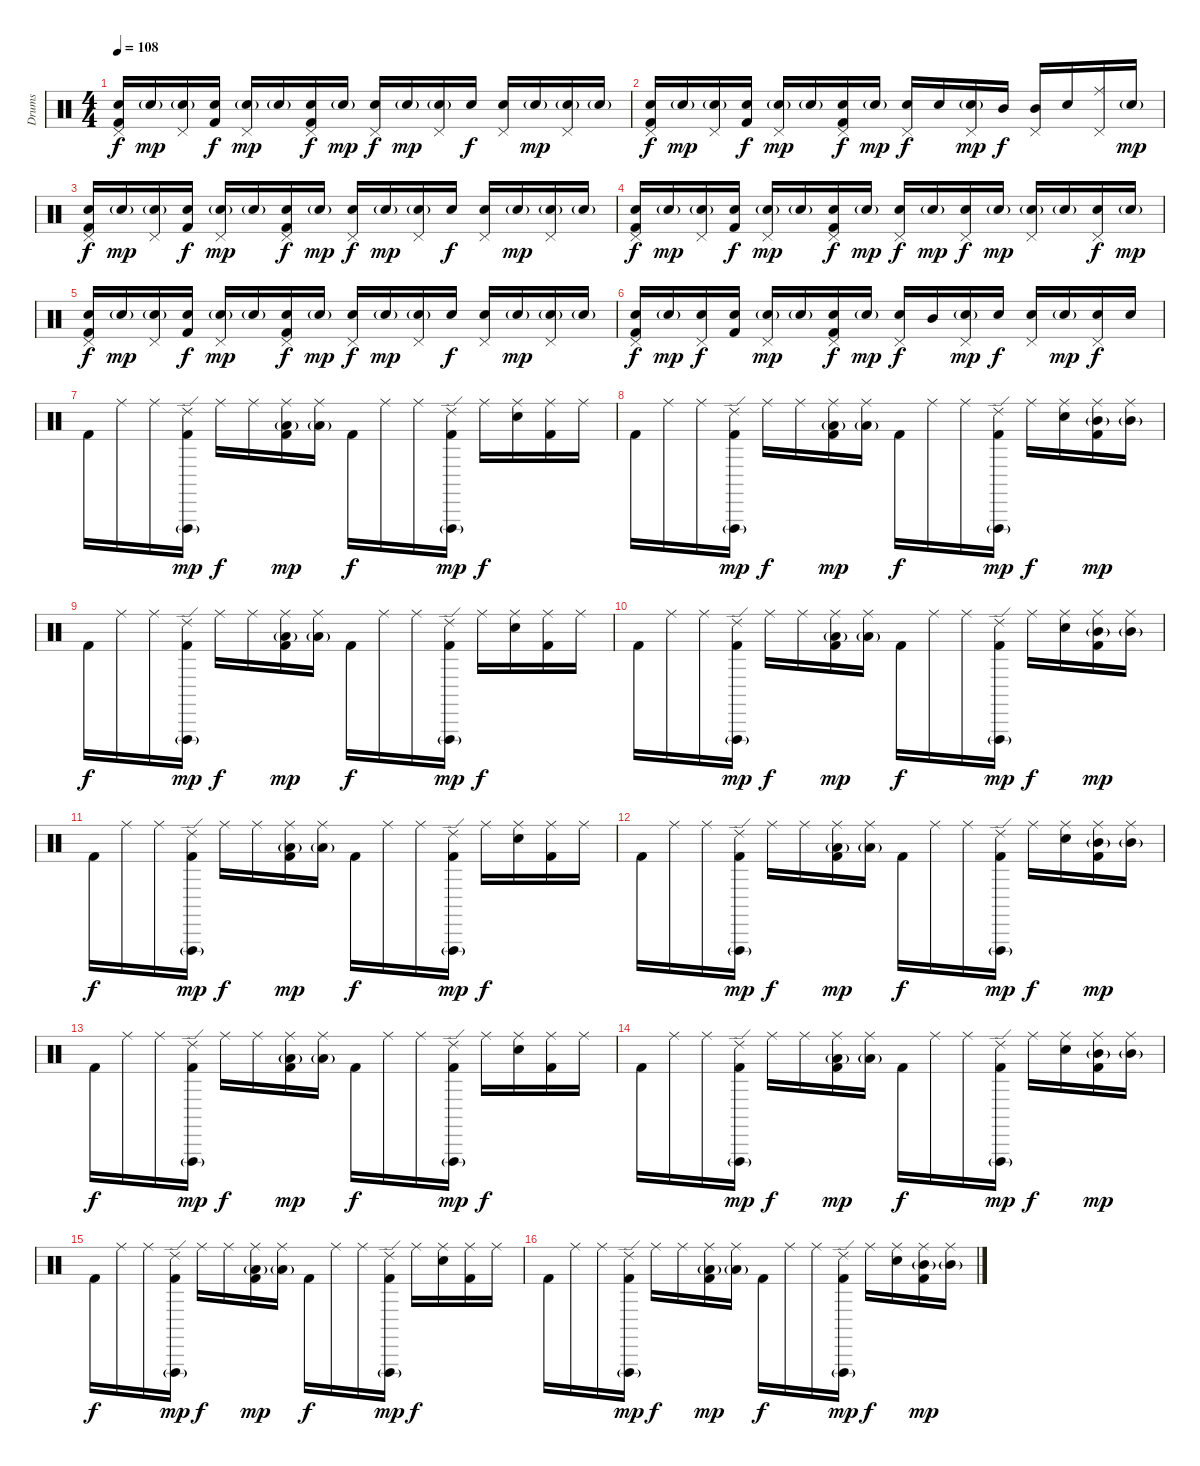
\track ("Drums" "Drums") {instrument percussion}
\staff {score}
\articulation defaults
\ts (4 4)
\tempo 108
\clef neutral
\ks c
("Snare (hit) 2" "Kick (hit) 2" "Pedal Hi-Hat (hit)").16{dy f volume 13} "Snare (hit) 2"{g}.16{dy mp volume 9} ("Snare (hit) 2"{g} "Pedal Hi-Hat (hit)").16 ("Snare (hit) 2" "Kick (hit) 2").16{dy f} ("Snare (hit) 2"{g} "Pedal Hi-Hat (hit)").16{dy mp} "Snare (hit) 2"{g}.16 ("Snare (hit) 2" "Kick (hit) 2" "Pedal Hi-Hat (hit)").16{dy f} "Snare (hit) 2"{g}.16{dy mp} ("Snare (hit) 2" "Pedal Hi-Hat (hit)").16{dy f} "Snare (hit) 2"{g}.16{dy mp} ("Snare (hit) 2"{g} "Pedal Hi-Hat (hit)").16 "Snare (hit) 2".16{dy f volume 13} ("Snare (hit) 2" "Pedal Hi-Hat (hit)").16 "Snare (hit) 2"{g}.16{dy mp volume 8} ("Snare (hit) 2"{g} "Pedal Hi-Hat (hit)").16 "Snare (hit) 2"{g}.16 |
("Snare (hit) 2" "Kick (hit) 2" "Pedal Hi-Hat (hit)").16{dy f volume 13} "Snare (hit) 2"{g}.16{dy mp volume 9} ("Snare (hit) 2"{g} "Pedal Hi-Hat (hit)").16 ("Snare (hit) 2" "Kick (hit) 2").16{dy f} ("Snare (hit) 2"{g} "Pedal Hi-Hat (hit)").16{dy mp} "Snare (hit) 2"{g}.16 ("Snare (hit) 2" "Kick (hit) 2" "Pedal Hi-Hat (hit)").16{dy f} "Snare (hit) 2"{g}.16{dy mp} ("Snare (hit) 2" "Pedal Hi-Hat (hit)").16{dy f volume 13} "Snare (hit) 2".16 ("Snare (hit) 2"{g} "Pedal Hi-Hat (hit)").16{dy mp} "Mid Tom (hit)".16{dy f volume 16} ("Mid Tom (hit)" "Pedal Hi-Hat (hit)").16{volume 16} "Snare (hit) 2".16{volume 16} ("Ride (middle)" "Pedal Hi-Hat (hit)").16{volume 16} "Snare (hit) 2"{g}.16{dy mp volume 16} |
("Snare (hit) 2" "Kick (hit) 2" "Pedal Hi-Hat (hit)").16{dy f volume 13} "Snare (hit) 2"{g}.16{dy mp volume 9} ("Snare (hit) 2"{g} "Pedal Hi-Hat (hit)").16 ("Snare (hit) 2" "Kick (hit) 2").16{dy f} ("Snare (hit) 2"{g} "Pedal Hi-Hat (hit)").16{dy mp} "Snare (hit) 2"{g}.16 ("Snare (hit) 2" "Kick (hit) 2" "Pedal Hi-Hat (hit)").16{dy f} "Snare (hit) 2"{g}.16{dy mp} ("Snare (hit) 2" "Pedal Hi-Hat (hit)").16{dy f} "Snare (hit) 2"{g}.16{dy mp} ("Snare (hit) 2"{g} "Pedal Hi-Hat (hit)").16 "Snare (hit) 2".16{dy f volume 13} ("Snare (hit) 2" "Pedal Hi-Hat (hit)").16 "Snare (hit) 2"{g}.16{dy mp volume 8} ("Snare (hit) 2"{g} "Pedal Hi-Hat (hit)").16 "Snare (hit) 2"{g}.16 |
("Snare (hit) 2" "Kick (hit) 2" "Pedal Hi-Hat (hit)").16{dy f volume 13} "Snare (hit) 2"{g}.16{dy mp volume 9} ("Snare (hit) 2"{g} "Pedal Hi-Hat (hit)").16 ("Snare (hit) 2" "Kick (hit) 2").16{dy f} ("Snare (hit) 2"{g} "Pedal Hi-Hat (hit)").16{dy mp} "Snare (hit) 2"{g}.16 ("Snare (hit) 2" "Kick (hit) 2" "Pedal Hi-Hat (hit)").16{dy f} "Snare (hit) 2"{g}.16{dy mp} ("Snare (hit) 2" "Pedal Hi-Hat (hit)").16{dy f} "Snare (hit) 2"{g}.16{dy mp} ("Snare (hit) 2" "Pedal Hi-Hat (hit)").16{dy f volume 16} "Snare (hit) 2"{g}.16{dy mp volume 10} ("Snare (hit) 2"{g} "Pedal Hi-Hat (hit)").16{volume 10} "Snare (hit) 2"{g}.16{volume 8} ("Snare (hit) 2" "Pedal Hi-Hat (hit)").16{dy f volume 16} "Snare (hit) 2"{g}.16{dy mp volume 10} |
("Snare (hit) 2" "Kick (hit) 2" "Pedal Hi-Hat (hit)").16{dy f volume 13} "Snare (hit) 2"{g}.16{dy mp volume 9} ("Snare (hit) 2"{g} "Pedal Hi-Hat (hit)").16 ("Snare (hit) 2" "Kick (hit) 2").16{dy f} ("Snare (hit) 2"{g} "Pedal Hi-Hat (hit)").16{dy mp} "Snare (hit) 2"{g}.16 ("Snare (hit) 2" "Kick (hit) 2" "Pedal Hi-Hat (hit)").16{dy f} "Snare (hit) 2"{g}.16{dy mp} ("Snare (hit) 2" "Pedal Hi-Hat (hit)").16{dy f} "Snare (hit) 2"{g}.16{dy mp} ("Snare (hit) 2"{g} "Pedal Hi-Hat (hit)").16 "Snare (hit) 2".16{dy f volume 13} ("Snare (hit) 2" "Pedal Hi-Hat (hit)").16 "Snare (hit) 2"{g}.16{dy mp volume 8} ("Snare (hit) 2"{g} "Pedal Hi-Hat (hit)").16{volume 14} "Snare (hit) 2"{g}.16 |
("Snare (hit) 2" "Kick (hit) 2" "Pedal Hi-Hat (hit)").16{dy f volume 13} "Snare (hit) 2"{g}.16{dy mp} ("Snare (hit) 2" "Pedal Hi-Hat (hit)").16{dy f} ("Snare (hit) 2" "Kick (hit) 2").16 ("Snare (hit) 2"{g} "Pedal Hi-Hat (hit)").16{dy mp} "Snare (hit) 2"{g}.16 ("Snare (hit) 2" "Kick (hit) 2" "Pedal Hi-Hat (hit)").16{dy f} "Snare (hit) 2"{g}.16{dy mp} ("Snare (hit) 2" "Pedal Hi-Hat (hit)").16{dy f} "Mid Tom (hit)".16{volume 16} ("Snare (hit) 2"{g} "Pedal Hi-Hat (hit)").16{dy mp} "Snare (hit) 2".16{dy f} ("Snare (hit) 2" "Pedal Hi-Hat (hit)").16 "Snare (hit) 2"{g}.16{dy mp volume 13} ("Snare (hit) 2" "Pedal Hi-Hat (hit)").16{dy f volume 16} "Snare (hit) 2".16{volume 16} |
"Kick (hit) 2".16 "Ride (middle)".16 "Ride (middle)".16 ("Vibraslap (hit)"{g} "Ride (edge) 2" "Kick (hit) 2").16{dy mp} "Ride (middle)".16{dy f} "Ride (middle)".16 ("Ride (middle)" "Kick (hit) 2" "Low Tom (hit)"{g}).16{dy mp} ("Ride (middle)" "Low Tom (hit)"{g}).16 "Kick (hit) 2".16{dy f} "Ride (middle)".16 "Ride (middle)".16 ("Vibraslap (hit)"{g} "Ride (edge) 2" "Kick (hit) 2").16{dy mp} "Ride (middle)".16{dy f} ("Ride (middle)" "Snare (hit) 2").16 ("Ride (middle)" "Kick (hit) 2").16 "Ride (middle)".16 |
"Kick (hit) 2".16 "Ride (middle)".16 "Ride (middle)".16 ("Vibraslap (hit)"{g} "Ride (edge) 2" "Kick (hit) 2").16{dy mp} "Ride (middle)".16{dy f} "Ride (middle)".16 ("Ride (middle)" "Kick (hit) 2" "Low Tom (hit)"{g}).16{dy mp} ("Ride (middle)" "Low Tom (hit)"{g}).16 "Kick (hit) 2".16{dy f} "Ride (middle)".16 "Ride (middle)".16 ("Vibraslap (hit)"{g} "Ride (edge) 2" "Kick (hit) 2").16{dy mp} "Ride (middle)".16{dy f} ("Ride (middle)" "Snare (hit) 2").16 ("Ride (middle)" "Mid Tom (hit)"{g} "Kick (hit) 2").16{dy mp} ("Ride (middle)" "Mid Tom (hit)"{g}).16 |
"Kick (hit) 2".16{dy f} "Ride (middle)".16 "Ride (middle)".16 ("Vibraslap (hit)"{g} "Ride (edge) 2" "Kick (hit) 2").16{dy mp} "Ride (middle)".16{dy f} "Ride (middle)".16 ("Ride (middle)" "Kick (hit) 2" "Low Tom (hit)"{g}).16{dy mp} ("Ride (middle)" "Low Tom (hit)"{g}).16 "Kick (hit) 2".16{dy f} "Ride (middle)".16 "Ride (middle)".16 ("Vibraslap (hit)"{g} "Ride (edge) 2" "Kick (hit) 2").16{dy mp} "Ride (middle)".16{dy f} ("Ride (middle)" "Snare (hit) 2").16 ("Ride (middle)" "Kick (hit) 2").16 "Ride (middle)".16 |
"Kick (hit) 2".16 "Ride (middle)".16 "Ride (middle)".16 ("Vibraslap (hit)"{g} "Ride (edge) 2" "Kick (hit) 2").16{dy mp} "Ride (middle)".16{dy f} "Ride (middle)".16 ("Ride (middle)" "Kick (hit) 2" "Low Tom (hit)"{g}).16{dy mp} ("Ride (middle)" "Low Tom (hit)"{g}).16 "Kick (hit) 2".16{dy f} "Ride (middle)".16 "Ride (middle)".16 ("Vibraslap (hit)"{g} "Ride (edge) 2" "Kick (hit) 2").16{dy mp} "Ride (middle)".16{dy f} ("Ride (middle)" "Snare (hit) 2").16 ("Ride (middle)" "Mid Tom (hit)"{g} "Kick (hit) 2").16{dy mp} ("Ride (middle)" "Mid Tom (hit)"{g}).16 |
"Kick (hit) 2".16{dy f} "Ride (middle)".16 "Ride (middle)".16 ("Vibraslap (hit)"{g} "Ride (edge) 2" "Kick (hit) 2").16{dy mp} "Ride (middle)".16{dy f} "Ride (middle)".16 ("Ride (middle)" "Kick (hit) 2" "Low Tom (hit)"{g}).16{dy mp} ("Ride (middle)" "Low Tom (hit)"{g}).16 "Kick (hit) 2".16{dy f} "Ride (middle)".16 "Ride (middle)".16 ("Vibraslap (hit)"{g} "Ride (edge) 2" "Kick (hit) 2").16{dy mp} "Ride (middle)".16{dy f} ("Ride (middle)" "Snare (hit) 2").16 ("Ride (middle)" "Kick (hit) 2").16 "Ride (middle)".16 |
"Kick (hit) 2".16 "Ride (middle)".16 "Ride (middle)".16 ("Vibraslap (hit)"{g} "Ride (edge) 2" "Kick (hit) 2").16{dy mp} "Ride (middle)".16{dy f} "Ride (middle)".16 ("Ride (middle)" "Kick (hit) 2" "Low Tom (hit)"{g}).16{dy mp} ("Ride (middle)" "Low Tom (hit)"{g}).16 "Kick (hit) 2".16{dy f} "Ride (middle)".16 "Ride (middle)".16 ("Vibraslap (hit)"{g} "Ride (edge) 2" "Kick (hit) 2").16{dy mp} "Ride (middle)".16{dy f} ("Ride (middle)" "Snare (hit) 2").16 ("Ride (middle)" "Mid Tom (hit)"{g} "Kick (hit) 2").16{dy mp} ("Ride (middle)" "Mid Tom (hit)"{g}).16 |
"Kick (hit) 2".16{dy f} "Ride (middle)".16 "Ride (middle)".16 ("Vibraslap (hit)"{g} "Ride (edge) 2" "Kick (hit) 2").16{dy mp} "Ride (middle)".16{dy f} "Ride (middle)".16 ("Ride (middle)" "Kick (hit) 2" "Low Tom (hit)"{g}).16{dy mp} ("Ride (middle)" "Low Tom (hit)"{g}).16 "Kick (hit) 2".16{dy f} "Ride (middle)".16 "Ride (middle)".16 ("Vibraslap (hit)"{g} "Ride (edge) 2" "Kick (hit) 2").16{dy mp} "Ride (middle)".16{dy f} ("Ride (middle)" "Snare (hit) 2").16 ("Ride (middle)" "Kick (hit) 2").16 "Ride (middle)".16 |
"Kick (hit) 2".16 "Ride (middle)".16 "Ride (middle)".16 ("Vibraslap (hit)"{g} "Ride (edge) 2" "Kick (hit) 2").16{dy mp} "Ride (middle)".16{dy f} "Ride (middle)".16 ("Ride (middle)" "Kick (hit) 2" "Low Tom (hit)"{g}).16{dy mp} ("Ride (middle)" "Low Tom (hit)"{g}).16 "Kick (hit) 2".16{dy f} "Ride (middle)".16 "Ride (middle)".16 ("Vibraslap (hit)"{g} "Ride (edge) 2" "Kick (hit) 2").16{dy mp} "Ride (middle)".16{dy f} ("Ride (middle)" "Snare (hit) 2").16 ("Ride (middle)" "Mid Tom (hit)"{g} "Kick (hit) 2").16{dy mp} ("Ride (middle)" "Mid Tom (hit)"{g}).16 |
"Kick (hit) 2".16{dy f} "Ride (middle)".16 "Ride (middle)".16 ("Vibraslap (hit)"{g} "Ride (edge) 2" "Kick (hit) 2").16{dy mp} "Ride (middle)".16{dy f} "Ride (middle)".16 ("Ride (middle)" "Kick (hit) 2" "Low Tom (hit)"{g}).16{dy mp} ("Ride (middle)" "Low Tom (hit)"{g}).16 "Kick (hit) 2".16{dy f} "Ride (middle)".16 "Ride (middle)".16 ("Vibraslap (hit)"{g} "Ride (edge) 2" "Kick (hit) 2").16{dy mp} "Ride (middle)".16{dy f} ("Ride (middle)" "Snare (hit) 2").16 ("Ride (middle)" "Kick (hit) 2").16 "Ride (middle)".16 |
"Kick (hit) 2".16 "Ride (middle)".16 "Ride (middle)".16 ("Vibraslap (hit)"{g} "Ride (edge) 2" "Kick (hit) 2").16{dy mp} "Ride (middle)".16{dy f} "Ride (middle)".16 ("Ride (middle)" "Kick (hit) 2" "Low Tom (hit)"{g}).16{dy mp} ("Ride (middle)" "Low Tom (hit)"{g}).16 "Kick (hit) 2".16{dy f} "Ride (middle)".16 "Ride (middle)".16 ("Vibraslap (hit)"{g} "Ride (edge) 2" "Kick (hit) 2").16{dy mp} "Ride (middle)".16{dy f} ("Ride (middle)" "Snare (hit) 2").16 ("Ride (middle)" "Mid Tom (hit)"{g} "Kick (hit) 2").16{dy mp} ("Ride (middle)" "Mid Tom (hit)"{g}).16
